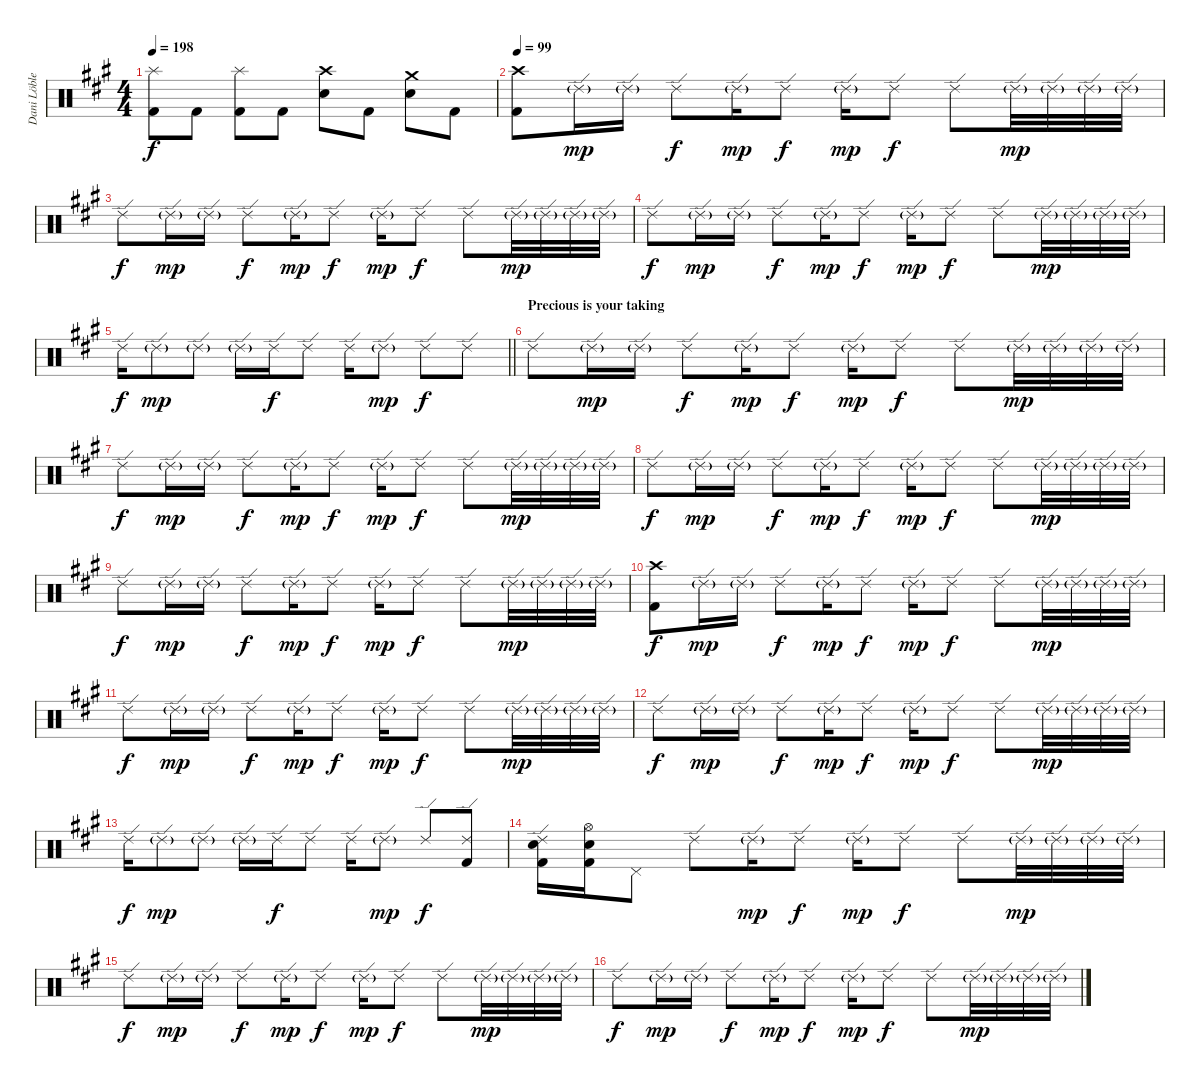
\track ("Dani Löble" "Dani Löble") {instrument percussion}
\staff {score}
\articulation defaults
\ts (4 4)
\tempo 198
\clef neutral
\ks f#minor
("Splash (hit)" "Kick (hit) 2").8{dy f} "Kick (hit) 2".8 ("Splash (hit)" "Kick (hit) 2").8 "Kick (hit) 2".8 ("Crash high (hit)" "Snare (hit) 2").8 "Kick (hit) 2".8 ("Crash medium (hit)" "Snare (hit) 2").8 "Kick (hit) 2".8 |
\tempo 99
("Crash high (hit)" "Kick (hit) 2").8 "Ride (edge) 2"{g}.16{dy mp} "Ride (edge) 2"{g}.16 "Ride (edge) 2".8{dy f} "Ride (edge) 2"{g}.16{dy mp} "Ride (edge) 2".8{dy f} "Ride (edge) 2"{g}.16{dy mp} "Ride (edge) 2".8{dy f} "Ride (edge) 2".8 "Ride (edge) 2"{g}.32{dy mp} "Ride (edge) 2"{g}.32 "Ride (edge) 2"{g}.32 "Ride (edge) 2"{g}.32 |
"Ride (edge) 2".8{dy f} "Ride (edge) 2"{g}.16{dy mp} "Ride (edge) 2"{g}.16 "Ride (edge) 2".8{dy f} "Ride (edge) 2"{g}.16{dy mp} "Ride (edge) 2".8{dy f} "Ride (edge) 2"{g}.16{dy mp} "Ride (edge) 2".8{dy f} "Ride (edge) 2".8 "Ride (edge) 2"{g}.32{dy mp} "Ride (edge) 2"{g}.32 "Ride (edge) 2"{g}.32 "Ride (edge) 2"{g}.32 |
"Ride (edge) 2".8{dy f} "Ride (edge) 2"{g}.16{dy mp} "Ride (edge) 2"{g}.16 "Ride (edge) 2".8{dy f} "Ride (edge) 2"{g}.16{dy mp} "Ride (edge) 2".8{dy f} "Ride (edge) 2"{g}.16{dy mp} "Ride (edge) 2".8{dy f} "Ride (edge) 2".8 "Ride (edge) 2"{g}.32{dy mp} "Ride (edge) 2"{g}.32 "Ride (edge) 2"{g}.32 "Ride (edge) 2"{g}.32 |
\barLineRight lightlight "Ride (edge) 2".16{dy f} "Ride (edge) 2"{g}.8{dy mp} "Ride (edge) 2"{g}.8 "Ride (edge) 2"{g}.16 "Ride (edge) 2".16{dy f} "Ride (edge) 2".8 "Ride (edge) 2".16 "Ride (edge) 2"{g}.8{dy mp} "Ride (edge) 2".8{dy f} "Ride (edge) 2".8
|
\section ("" "Precious is your taking")
"Ride (edge) 2".8 "Ride (edge) 2"{g}.16{dy mp} "Ride (edge) 2"{g}.16 "Ride (edge) 2".8{dy f} "Ride (edge) 2"{g}.16{dy mp} "Ride (edge) 2".8{dy f} "Ride (edge) 2"{g}.16{dy mp} "Ride (edge) 2".8{dy f} "Ride (edge) 2".8 "Ride (edge) 2"{g}.32{dy mp} "Ride (edge) 2"{g}.32 "Ride (edge) 2"{g}.32 "Ride (edge) 2"{g}.32 |
"Ride (edge) 2".8{dy f} "Ride (edge) 2"{g}.16{dy mp} "Ride (edge) 2"{g}.16 "Ride (edge) 2".8{dy f} "Ride (edge) 2"{g}.16{dy mp} "Ride (edge) 2".8{dy f} "Ride (edge) 2"{g}.16{dy mp} "Ride (edge) 2".8{dy f} "Ride (edge) 2".8 "Ride (edge) 2"{g}.32{dy mp} "Ride (edge) 2"{g}.32 "Ride (edge) 2"{g}.32 "Ride (edge) 2"{g}.32 |
"Ride (edge) 2".8{dy f} "Ride (edge) 2"{g}.16{dy mp} "Ride (edge) 2"{g}.16 "Ride (edge) 2".8{dy f} "Ride (edge) 2"{g}.16{dy mp} "Ride (edge) 2".8{dy f} "Ride (edge) 2"{g}.16{dy mp} "Ride (edge) 2".8{dy f} "Ride (edge) 2".8 "Ride (edge) 2"{g}.32{dy mp} "Ride (edge) 2"{g}.32 "Ride (edge) 2"{g}.32 "Ride (edge) 2"{g}.32 |
"Ride (edge) 2".8{dy f} "Ride (edge) 2"{g}.16{dy mp} "Ride (edge) 2"{g}.16 "Ride (edge) 2".8{dy f} "Ride (edge) 2"{g}.16{dy mp} "Ride (edge) 2".8{dy f} "Ride (edge) 2"{g}.16{dy mp} "Ride (edge) 2".8{dy f} "Ride (edge) 2".8 "Ride (edge) 2"{g}.32{dy mp} "Ride (edge) 2"{g}.32 "Ride (edge) 2"{g}.32 "Ride (edge) 2"{g}.32 |
("Crash high (hit)" "Kick (hit) 2").8{dy f} "Ride (edge) 2"{g}.16{dy mp} "Ride (edge) 2"{g}.16 "Ride (edge) 2".8{dy f} "Ride (edge) 2"{g}.16{dy mp} "Ride (edge) 2".8{dy f} "Ride (edge) 2"{g}.16{dy mp} "Ride (edge) 2".8{dy f} "Ride (edge) 2".8 "Ride (edge) 2"{g}.32{dy mp} "Ride (edge) 2"{g}.32 "Ride (edge) 2"{g}.32 "Ride (edge) 2"{g}.32 |
"Ride (edge) 2".8{dy f} "Ride (edge) 2"{g}.16{dy mp} "Ride (edge) 2"{g}.16 "Ride (edge) 2".8{dy f} "Ride (edge) 2"{g}.16{dy mp} "Ride (edge) 2".8{dy f} "Ride (edge) 2"{g}.16{dy mp} "Ride (edge) 2".8{dy f} "Ride (edge) 2".8 "Ride (edge) 2"{g}.32{dy mp} "Ride (edge) 2"{g}.32 "Ride (edge) 2"{g}.32 "Ride (edge) 2"{g}.32 |
"Ride (edge) 2".8{dy f} "Ride (edge) 2"{g}.16{dy mp} "Ride (edge) 2"{g}.16 "Ride (edge) 2".8{dy f} "Ride (edge) 2"{g}.16{dy mp} "Ride (edge) 2".8{dy f} "Ride (edge) 2"{g}.16{dy mp} "Ride (edge) 2".8{dy f} "Ride (edge) 2".8 "Ride (edge) 2"{g}.32{dy mp} "Ride (edge) 2"{g}.32 "Ride (edge) 2"{g}.32 "Ride (edge) 2"{g}.32 |
"Ride (edge) 2".16{dy f} "Ride (edge) 2"{g}.8{dy mp} "Ride (edge) 2"{g}.8 "Ride (edge) 2"{g}.16 "Ride (edge) 2".16{dy f} "Ride (edge) 2".8 "Ride (edge) 2".16 "Ride (edge) 2"{g}.8{dy mp} "Ride (edge) 2".8{dy f} ("Ride (edge) 2" "Kick (hit) 2").8 |
("Ride (edge) 2" "Snare (hit) 2" "Kick (hit) 2").16 ("Hi-Hat (open)" "Snare (hit) 2" "Kick (hit) 2").16 "Pedal Hi-Hat (hit)".8 "Ride (edge) 2".8 "Ride (edge) 2"{g}.16{dy mp} "Ride (edge) 2".8{dy f} "Ride (edge) 2"{g}.16{dy mp} "Ride (edge) 2".8{dy f} "Ride (edge) 2".8 "Ride (edge) 2"{g}.32{dy mp} "Ride (edge) 2"{g}.32 "Ride (edge) 2"{g}.32 "Ride (edge) 2"{g}.32 |
"Ride (edge) 2".8{dy f} "Ride (edge) 2"{g}.16{dy mp} "Ride (edge) 2"{g}.16 "Ride (edge) 2".8{dy f} "Ride (edge) 2"{g}.16{dy mp} "Ride (edge) 2".8{dy f} "Ride (edge) 2"{g}.16{dy mp} "Ride (edge) 2".8{dy f} "Ride (edge) 2".8 "Ride (edge) 2"{g}.32{dy mp} "Ride (edge) 2"{g}.32 "Ride (edge) 2"{g}.32 "Ride (edge) 2"{g}.32 |
"Ride (edge) 2".8{dy f} "Ride (edge) 2"{g}.16{dy mp} "Ride (edge) 2"{g}.16 "Ride (edge) 2".8{dy f} "Ride (edge) 2"{g}.16{dy mp} "Ride (edge) 2".8{dy f} "Ride (edge) 2"{g}.16{dy mp} "Ride (edge) 2".8{dy f} "Ride (edge) 2".8 "Ride (edge) 2"{g}.32{dy mp} "Ride (edge) 2"{g}.32 "Ride (edge) 2"{g}.32 "Ride (edge) 2"{g}.32
